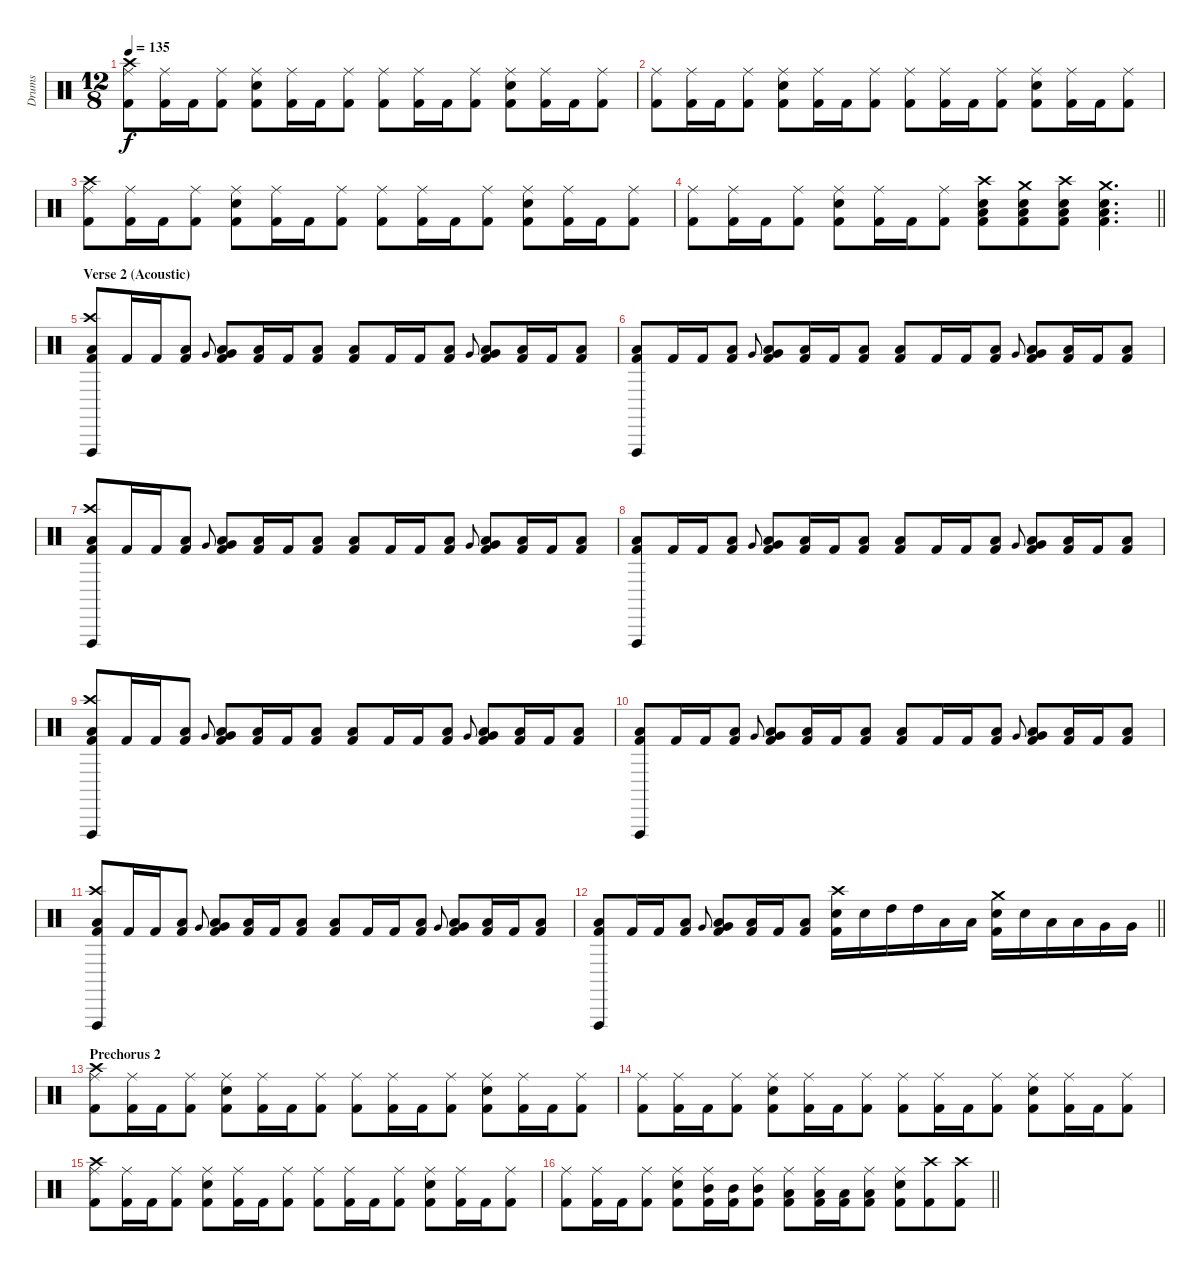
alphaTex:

\track ("Drums" "Drums") {instrument percussion}
\staff {score}
\articulation defaults
\ts (12 8)
\tempo 135
\clef neutral
\ks c
("Crash high (hit)" "Ride (middle)" "Kick (hit) 2").8{dy f} ("Ride (middle)" "Kick (hit) 2").16 "Kick (hit) 2".16 ("Ride (middle)" "Kick (hit) 2").8 ("Ride (middle)" "Snare (hit) 2" "Kick (hit) 2").8 ("Ride (middle)" "Kick (hit) 2").16 "Kick (hit) 2".16 ("Ride (middle)" "Kick (hit) 2").8 ("Ride (middle)" "Kick (hit) 2").8 ("Ride (middle)" "Kick (hit) 2").16 "Kick (hit) 2".16 ("Ride (middle)" "Kick (hit) 2").8 ("Ride (middle)" "Snare (hit) 2" "Kick (hit) 2").8 ("Ride (middle)" "Kick (hit) 2").16 "Kick (hit) 2".16 ("Ride (middle)" "Kick (hit) 2").8 |
("Ride (middle)" "Kick (hit) 2").8 ("Ride (middle)" "Kick (hit) 2").16 "Kick (hit) 2".16 ("Ride (middle)" "Kick (hit) 2").8 ("Ride (middle)" "Snare (hit) 2" "Kick (hit) 2").8 ("Ride (middle)" "Kick (hit) 2").16 "Kick (hit) 2".16 ("Ride (middle)" "Kick (hit) 2").8 ("Ride (middle)" "Kick (hit) 2").8 ("Ride (middle)" "Kick (hit) 2").16 "Kick (hit) 2".16 ("Ride (middle)" "Kick (hit) 2").8 ("Ride (middle)" "Snare (hit) 2" "Kick (hit) 2").8 ("Ride (middle)" "Kick (hit) 2").16 "Kick (hit) 2".16 ("Ride (middle)" "Kick (hit) 2").8 |
("Crash high (hit)" "Ride (middle)" "Kick (hit) 2").8 ("Ride (middle)" "Kick (hit) 2").16 "Kick (hit) 2".16 ("Ride (middle)" "Kick (hit) 2").8 ("Ride (middle)" "Snare (hit) 2" "Kick (hit) 2").8 ("Ride (middle)" "Kick (hit) 2").16 "Kick (hit) 2".16 ("Ride (middle)" "Kick (hit) 2").8 ("Ride (middle)" "Kick (hit) 2").8 ("Ride (middle)" "Kick (hit) 2").16 "Kick (hit) 2".16 ("Ride (middle)" "Kick (hit) 2").8 ("Ride (middle)" "Snare (hit) 2" "Kick (hit) 2").8 ("Ride (middle)" "Kick (hit) 2").16 "Kick (hit) 2".16 ("Ride (middle)" "Kick (hit) 2").8 |
\barLineRight lightlight
("Ride (middle)" "Kick (hit) 2").8 ("Ride (middle)" "Kick (hit) 2").16 "Kick (hit) 2".16 ("Ride (middle)" "Kick (hit) 2").8 ("Ride (middle)" "Snare (hit) 2" "Kick (hit) 2").8 ("Ride (middle)" "Kick (hit) 2").16 "Kick (hit) 2".16 ("Ride (middle)" "Kick (hit) 2").8 ("Crash high (hit)" "Low Floor Tom (hit)" "Snare (hit) 2" "Kick (hit) 2").8 ("Crash medium (hit)" "Low Floor Tom (hit)" "Snare (hit) 2" "Kick (hit) 2").8 ("Crash high (hit)" "Low Floor Tom (hit)" "Snare (hit) 2" "Kick (hit) 2").8 ("Crash medium (hit)" "Low Floor Tom (hit)" "Snare (hit) 2" "Kick (hit) 2").4{d} |
\section ("" "Verse 2 (Acoustic)")
("Crash high (hit)" "Vibraslap (hit)" "Low Floor Tom (hit)" "Kick (hit) 2").8 "Kick (hit) 2".16 "Kick (hit) 2".16 ("Low Tom (hit)" "Kick (hit) 2").8 "Very Low Tom (hit)".8{gr onbeat} ("Very Low Tom (hit)" "Low Floor Tom (hit)" "Kick (hit) 2").8 ("Low Floor Tom (hit)" "Kick (hit) 2").16 "Kick (hit) 2".16 ("Low Floor Tom (hit)" "Kick (hit) 2").8 ("Low Floor Tom (hit)" "Kick (hit) 2").8 "Kick (hit) 2".16 "Kick (hit) 2".16 ("Low Tom (hit)" "Kick (hit) 2").8 "Very Low Tom (hit)".8{gr onbeat} ("Very Low Tom (hit)" "Low Floor Tom (hit)" "Kick (hit) 2").8 ("Low Floor Tom (hit)" "Kick (hit) 2").16 "Kick (hit) 2".16 ("Low Floor Tom (hit)" "Kick (hit) 2").8 |
("Vibraslap (hit)" "Low Floor Tom (hit)" "Kick (hit) 2").8 "Kick (hit) 2".16 "Kick (hit) 2".16 ("Low Tom (hit)" "Kick (hit) 2").8 "Very Low Tom (hit)".8{gr onbeat} ("Very Low Tom (hit)" "Low Floor Tom (hit)" "Kick (hit) 2").8 ("Low Floor Tom (hit)" "Kick (hit) 2").16 "Kick (hit) 2".16 ("Low Floor Tom (hit)" "Kick (hit) 2").8 ("Low Floor Tom (hit)" "Kick (hit) 2").8 "Kick (hit) 2".16 "Kick (hit) 2".16 ("Low Tom (hit)" "Kick (hit) 2").8 "Very Low Tom (hit)".8{gr onbeat} ("Very Low Tom (hit)" "Low Floor Tom (hit)" "Kick (hit) 2").8 ("Low Floor Tom (hit)" "Kick (hit) 2").16 "Kick (hit) 2".16 ("Low Floor Tom (hit)" "Kick (hit) 2").8 |
("Crash high (hit)" "Vibraslap (hit)" "Low Floor Tom (hit)" "Kick (hit) 2").8 "Kick (hit) 2".16 "Kick (hit) 2".16 ("Low Tom (hit)" "Kick (hit) 2").8 "Very Low Tom (hit)".8{gr onbeat} ("Very Low Tom (hit)" "Low Floor Tom (hit)" "Kick (hit) 2").8 ("Low Floor Tom (hit)" "Kick (hit) 2").16 "Kick (hit) 2".16 ("Low Floor Tom (hit)" "Kick (hit) 2").8 ("Low Floor Tom (hit)" "Kick (hit) 2").8 "Kick (hit) 2".16 "Kick (hit) 2".16 ("Low Tom (hit)" "Kick (hit) 2").8 "Very Low Tom (hit)".8{gr onbeat} ("Very Low Tom (hit)" "Low Floor Tom (hit)" "Kick (hit) 2").8 ("Low Floor Tom (hit)" "Kick (hit) 2").16 "Kick (hit) 2".16 ("Low Floor Tom (hit)" "Kick (hit) 2").8 |
("Vibraslap (hit)" "Low Floor Tom (hit)" "Kick (hit) 2").8 "Kick (hit) 2".16 "Kick (hit) 2".16 ("Low Tom (hit)" "Kick (hit) 2").8 "Very Low Tom (hit)".8{gr onbeat} ("Very Low Tom (hit)" "Low Floor Tom (hit)" "Kick (hit) 2").8 ("Low Floor Tom (hit)" "Kick (hit) 2").16 "Kick (hit) 2".16 ("Low Floor Tom (hit)" "Kick (hit) 2").8 ("Low Floor Tom (hit)" "Kick (hit) 2").8 "Kick (hit) 2".16 "Kick (hit) 2".16 ("Low Tom (hit)" "Kick (hit) 2").8 "Very Low Tom (hit)".8{gr onbeat} ("Very Low Tom (hit)" "Low Floor Tom (hit)" "Kick (hit) 2").8 ("Low Floor Tom (hit)" "Kick (hit) 2").16 "Kick (hit) 2".16 ("Low Floor Tom (hit)" "Kick (hit) 2").8 |
("Crash high (hit)" "Vibraslap (hit)" "Low Floor Tom (hit)" "Kick (hit) 2").8 "Kick (hit) 2".16 "Kick (hit) 2".16 ("Low Tom (hit)" "Kick (hit) 2").8 "Very Low Tom (hit)".8{gr onbeat} ("Very Low Tom (hit)" "Low Floor Tom (hit)" "Kick (hit) 2").8 ("Low Floor Tom (hit)" "Kick (hit) 2").16 "Kick (hit) 2".16 ("Low Floor Tom (hit)" "Kick (hit) 2").8 ("Low Floor Tom (hit)" "Kick (hit) 2").8 "Kick (hit) 2".16 "Kick (hit) 2".16 ("Low Tom (hit)" "Kick (hit) 2").8 "Very Low Tom (hit)".8{gr onbeat} ("Very Low Tom (hit)" "Low Floor Tom (hit)" "Kick (hit) 2").8 ("Low Floor Tom (hit)" "Kick (hit) 2").16 "Kick (hit) 2".16 ("Low Floor Tom (hit)" "Kick (hit) 2").8 |
("Vibraslap (hit)" "Low Floor Tom (hit)" "Kick (hit) 2").8 "Kick (hit) 2".16 "Kick (hit) 2".16 ("Low Tom (hit)" "Kick (hit) 2").8 "Very Low Tom (hit)".8{gr onbeat} ("Very Low Tom (hit)" "Low Floor Tom (hit)" "Kick (hit) 2").8 ("Low Floor Tom (hit)" "Kick (hit) 2").16 "Kick (hit) 2".16 ("Low Floor Tom (hit)" "Kick (hit) 2").8 ("Low Floor Tom (hit)" "Kick (hit) 2").8 "Kick (hit) 2".16 "Kick (hit) 2".16 ("Low Tom (hit)" "Kick (hit) 2").8 "Very Low Tom (hit)".8{gr onbeat} ("Very Low Tom (hit)" "Low Floor Tom (hit)" "Kick (hit) 2").8 ("Low Floor Tom (hit)" "Kick (hit) 2").16 "Kick (hit) 2".16 ("Low Floor Tom (hit)" "Kick (hit) 2").8 |
("Crash high (hit)" "Vibraslap (hit)" "Low Floor Tom (hit)" "Kick (hit) 2").8 "Kick (hit) 2".16 "Kick (hit) 2".16 ("Low Tom (hit)" "Kick (hit) 2").8 "Very Low Tom (hit)".8{gr onbeat} ("Very Low Tom (hit)" "Low Floor Tom (hit)" "Kick (hit) 2").8 ("Low Floor Tom (hit)" "Kick (hit) 2").16 "Kick (hit) 2".16 ("Low Floor Tom (hit)" "Kick (hit) 2").8 ("Low Floor Tom (hit)" "Kick (hit) 2").8 "Kick (hit) 2".16 "Kick (hit) 2".16 ("Low Tom (hit)" "Kick (hit) 2").8 "Very Low Tom (hit)".8{gr onbeat} ("Very Low Tom (hit)" "Low Floor Tom (hit)" "Kick (hit) 2").8 ("Low Floor Tom (hit)" "Kick (hit) 2").16 "Kick (hit) 2".16 ("Low Floor Tom (hit)" "Kick (hit) 2").8 |
\barLineRight lightlight
("Vibraslap (hit)" "Low Floor Tom (hit)" "Kick (hit) 2").8 "Kick (hit) 2".16 "Kick (hit) 2".16 ("Low Tom (hit)" "Kick (hit) 2").8 "Very Low Tom (hit)".8{gr onbeat} ("Very Low Tom (hit)" "Low Floor Tom (hit)" "Kick (hit) 2").8 ("Low Floor Tom (hit)" "Kick (hit) 2").16 "Kick (hit) 2".16 ("Low Floor Tom (hit)" "Kick (hit) 2").8 ("Crash high (hit)" "Snare (hit) 2" "Kick (hit) 2").16 "Snare (hit) 2".16 "High Tom (hit)".16 "High Tom (hit)".16 "Low Tom (hit)".16 "Low Tom (hit)".16 ("Crash medium (hit)" "Snare (hit) 2" "Kick (hit) 2").16 "Snare (hit) 2".16 "Low Tom (hit)".16 "Low Tom (hit)".16 "Very Low Tom (hit)".16 "Very Low Tom (hit)".16 |
\section ("" "Prechorus 2")
("Crash high (hit)" "Ride (middle)" "Kick (hit) 2").8 ("Ride (middle)" "Kick (hit) 2").16 "Kick (hit) 2".16 ("Ride (middle)" "Kick (hit) 2").8 ("Ride (middle)" "Snare (hit) 2" "Kick (hit) 2").8 ("Ride (middle)" "Kick (hit) 2").16 "Kick (hit) 2".16 ("Ride (middle)" "Kick (hit) 2").8 ("Ride (middle)" "Kick (hit) 2").8 ("Ride (middle)" "Kick (hit) 2").16 "Kick (hit) 2".16 ("Ride (middle)" "Kick (hit) 2").8 ("Ride (middle)" "Snare (hit) 2" "Kick (hit) 2").8 ("Ride (middle)" "Kick (hit) 2").16 "Kick (hit) 2".16 ("Ride (middle)" "Kick (hit) 2").8 |
("Ride (middle)" "Kick (hit) 2").8 ("Ride (middle)" "Kick (hit) 2").16 "Kick (hit) 2".16 ("Ride (middle)" "Kick (hit) 2").8 ("Ride (middle)" "Snare (hit) 2" "Kick (hit) 2").8 ("Ride (middle)" "Kick (hit) 2").16 "Kick (hit) 2".16 ("Ride (middle)" "Kick (hit) 2").8 ("Ride (middle)" "Kick (hit) 2").8 ("Ride (middle)" "Kick (hit) 2").16 "Kick (hit) 2".16 ("Ride (middle)" "Kick (hit) 2").8 ("Ride (middle)" "Snare (hit) 2" "Kick (hit) 2").8 ("Ride (middle)" "Kick (hit) 2").16 "Kick (hit) 2".16 ("Ride (middle)" "Kick (hit) 2").8 |
("Crash high (hit)" "Ride (middle)" "Kick (hit) 2").8 ("Ride (middle)" "Kick (hit) 2").16 "Kick (hit) 2".16 ("Ride (middle)" "Kick (hit) 2").8 ("Ride (middle)" "Snare (hit) 2" "Kick (hit) 2").8 ("Ride (middle)" "Kick (hit) 2").16 "Kick (hit) 2".16 ("Ride (middle)" "Kick (hit) 2").8 ("Ride (middle)" "Kick (hit) 2").8 ("Ride (middle)" "Kick (hit) 2").16 "Kick (hit) 2".16 ("Ride (middle)" "Kick (hit) 2").8 ("Ride (middle)" "Snare (hit) 2" "Kick (hit) 2").8 ("Ride (middle)" "Kick (hit) 2").16 "Kick (hit) 2".16 ("Ride (middle)" "Kick (hit) 2").8 |
\barLineRight lightlight
("Ride (middle)" "Kick (hit) 2").8 ("Ride (middle)" "Kick (hit) 2").16 "Kick (hit) 2".16 ("Ride (middle)" "Kick (hit) 2").8 ("Ride (middle)" "Snare (hit) 2" "Kick (hit) 2").8 ("Ride (middle)" "Mid Tom (hit)" "Kick (hit) 2").16 ("Mid Tom (hit)" "Kick (hit) 2").16 ("Ride (middle)" "Mid Tom (hit)" "Kick (hit) 2").8 ("Ride (middle)" "Low Tom (hit)" "Kick (hit) 2").8 ("Ride (middle)" "Low Tom (hit)" "Kick (hit) 2").16 ("Low Tom (hit)" "Kick (hit) 2").16 ("Ride (middle)" "Low Tom (hit)" "Kick (hit) 2").8 ("Ride (middle)" "Snare (hit) 2" "Kick (hit) 2").8 ("Crash high (hit)" "Kick (hit) 2").8 ("Crash high (hit)" "Kick (hit) 2").8
